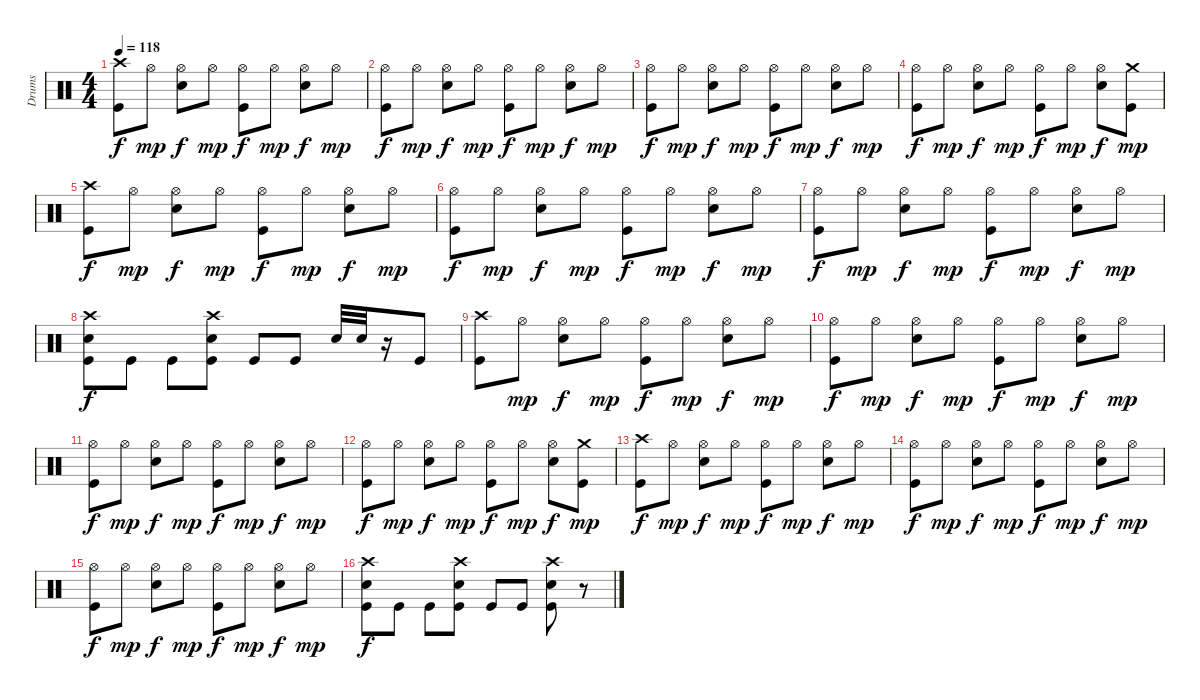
\track ("Drums" "Drums") {instrument percussion}
\staff {score}
\articulation defaults
\ts (4 4)
\tempo 118
\clef neutral
\ks c
("Crash high (hit)" "Kick (hit)").8{dy f} "Hi-Hat (open)".8{dy mp} ("Hi-Hat (open)" "Snare (hit) 2").8{dy f} "Hi-Hat (open)".8{dy mp} ("Hi-Hat (open)" "Kick (hit)").8{dy f} "Hi-Hat (open)".8{dy mp} ("Hi-Hat (open)" "Snare (hit) 2").8{dy f} "Hi-Hat (open)".8{dy mp} |
("Hi-Hat (open)" "Kick (hit)").8{dy f} "Hi-Hat (open)".8{dy mp} ("Hi-Hat (open)" "Snare (hit) 2").8{dy f} "Hi-Hat (open)".8{dy mp} ("Hi-Hat (open)" "Kick (hit)").8{dy f} "Hi-Hat (open)".8{dy mp} ("Hi-Hat (open)" "Snare (hit) 2").8{dy f} "Hi-Hat (open)".8{dy mp} |
("Hi-Hat (open)" "Kick (hit)").8{dy f} "Hi-Hat (open)".8{dy mp} ("Hi-Hat (open)" "Snare (hit) 2").8{dy f} "Hi-Hat (open)".8{dy mp} ("Hi-Hat (open)" "Kick (hit)").8{dy f} "Hi-Hat (open)".8{dy mp} ("Hi-Hat (open)" "Snare (hit) 2").8{dy f} "Hi-Hat (open)".8{dy mp} |
("Hi-Hat (open)" "Kick (hit)").8{dy f} "Hi-Hat (open)".8{dy mp} ("Hi-Hat (open)" "Snare (hit) 2").8{dy f} "Hi-Hat (open)".8{dy mp} ("Hi-Hat (open)" "Kick (hit)").8{dy f} "Hi-Hat (open)".8{dy mp} ("Hi-Hat (open)" "Snare (hit) 2").8{dy f} ("Crash medium (hit)" "Kick (hit)").8{dy mp} |
("Crash high (hit)" "Kick (hit)").8{dy f} "Hi-Hat (open)".8{dy mp} ("Hi-Hat (open)" "Snare (hit) 2").8{dy f} "Hi-Hat (open)".8{dy mp} ("Hi-Hat (open)" "Kick (hit)").8{dy f} "Hi-Hat (open)".8{dy mp} ("Hi-Hat (open)" "Snare (hit) 2").8{dy f} "Hi-Hat (open)".8{dy mp} |
("Hi-Hat (open)" "Kick (hit)").8{dy f} "Hi-Hat (open)".8{dy mp} ("Hi-Hat (open)" "Snare (hit) 2").8{dy f} "Hi-Hat (open)".8{dy mp} ("Hi-Hat (open)" "Kick (hit)").8{dy f} "Hi-Hat (open)".8{dy mp} ("Hi-Hat (open)" "Snare (hit) 2").8{dy f} "Hi-Hat (open)".8{dy mp} |
("Hi-Hat (open)" "Kick (hit)").8{dy f} "Hi-Hat (open)".8{dy mp} ("Hi-Hat (open)" "Snare (hit) 2").8{dy f} "Hi-Hat (open)".8{dy mp} ("Hi-Hat (open)" "Kick (hit)").8{dy f} "Hi-Hat (open)".8{dy mp} ("Hi-Hat (open)" "Snare (hit) 2").8{dy f} "Hi-Hat (open)".8{dy mp} |
("Crash high (hit)" "Kick (hit)" "Snare (hit) 2").8{dy f} "Kick (hit)".8 "Kick (hit)".8 ("Crash high (hit)" "Kick (hit)" "Snare (hit) 2").8 "Kick (hit)".8 "Kick (hit)".8 "Snare (hit) 2".32 "Snare (hit) 2".32 r.16 "Kick (hit)".8 |
("Crash high (hit)" "Kick (hit)").8 "Hi-Hat (open)".8{dy mp} ("Hi-Hat (open)" "Snare (hit) 2").8{dy f} "Hi-Hat (open)".8{dy mp} ("Hi-Hat (open)" "Kick (hit)").8{dy f} "Hi-Hat (open)".8{dy mp} ("Hi-Hat (open)" "Snare (hit) 2").8{dy f} "Hi-Hat (open)".8{dy mp} |
("Hi-Hat (open)" "Kick (hit)").8{dy f} "Hi-Hat (open)".8{dy mp} ("Hi-Hat (open)" "Snare (hit) 2").8{dy f} "Hi-Hat (open)".8{dy mp} ("Hi-Hat (open)" "Kick (hit)").8{dy f} "Hi-Hat (open)".8{dy mp} ("Hi-Hat (open)" "Snare (hit) 2").8{dy f} "Hi-Hat (open)".8{dy mp} |
("Hi-Hat (open)" "Kick (hit)").8{dy f} "Hi-Hat (open)".8{dy mp} ("Hi-Hat (open)" "Snare (hit) 2").8{dy f} "Hi-Hat (open)".8{dy mp} ("Hi-Hat (open)" "Kick (hit)").8{dy f} "Hi-Hat (open)".8{dy mp} ("Hi-Hat (open)" "Snare (hit) 2").8{dy f} "Hi-Hat (open)".8{dy mp} |
("Hi-Hat (open)" "Kick (hit)").8{dy f} "Hi-Hat (open)".8{dy mp} ("Hi-Hat (open)" "Snare (hit) 2").8{dy f} "Hi-Hat (open)".8{dy mp} ("Hi-Hat (open)" "Kick (hit)").8{dy f} "Hi-Hat (open)".8{dy mp} ("Hi-Hat (open)" "Snare (hit) 2").8{dy f} ("Crash medium (hit)" "Kick (hit)").8{dy mp} |
("Crash high (hit)" "Kick (hit)").8{dy f} "Hi-Hat (open)".8{dy mp} ("Hi-Hat (open)" "Snare (hit) 2").8{dy f} "Hi-Hat (open)".8{dy mp} ("Hi-Hat (open)" "Kick (hit)").8{dy f} "Hi-Hat (open)".8{dy mp} ("Hi-Hat (open)" "Snare (hit) 2").8{dy f} "Hi-Hat (open)".8{dy mp} |
("Hi-Hat (open)" "Kick (hit)").8{dy f} "Hi-Hat (open)".8{dy mp} ("Hi-Hat (open)" "Snare (hit) 2").8{dy f} "Hi-Hat (open)".8{dy mp} ("Hi-Hat (open)" "Kick (hit)").8{dy f} "Hi-Hat (open)".8{dy mp} ("Hi-Hat (open)" "Snare (hit) 2").8{dy f} "Hi-Hat (open)".8{dy mp} |
("Hi-Hat (open)" "Kick (hit)").8{dy f} "Hi-Hat (open)".8{dy mp} ("Hi-Hat (open)" "Snare (hit) 2").8{dy f} "Hi-Hat (open)".8{dy mp} ("Hi-Hat (open)" "Kick (hit)").8{dy f} "Hi-Hat (open)".8{dy mp} ("Hi-Hat (open)" "Snare (hit) 2").8{dy f} "Hi-Hat (open)".8{dy mp} |
("Crash high (hit)" "Kick (hit)" "Snare (hit) 2").8{dy f} "Kick (hit)".8 "Kick (hit)".8 ("Crash high (hit)" "Kick (hit)" "Snare (hit) 2").8 "Kick (hit)".8 "Kick (hit)".8 ("Crash high (hit)" "Kick (hit)" "Snare (hit) 2").8 r.8
